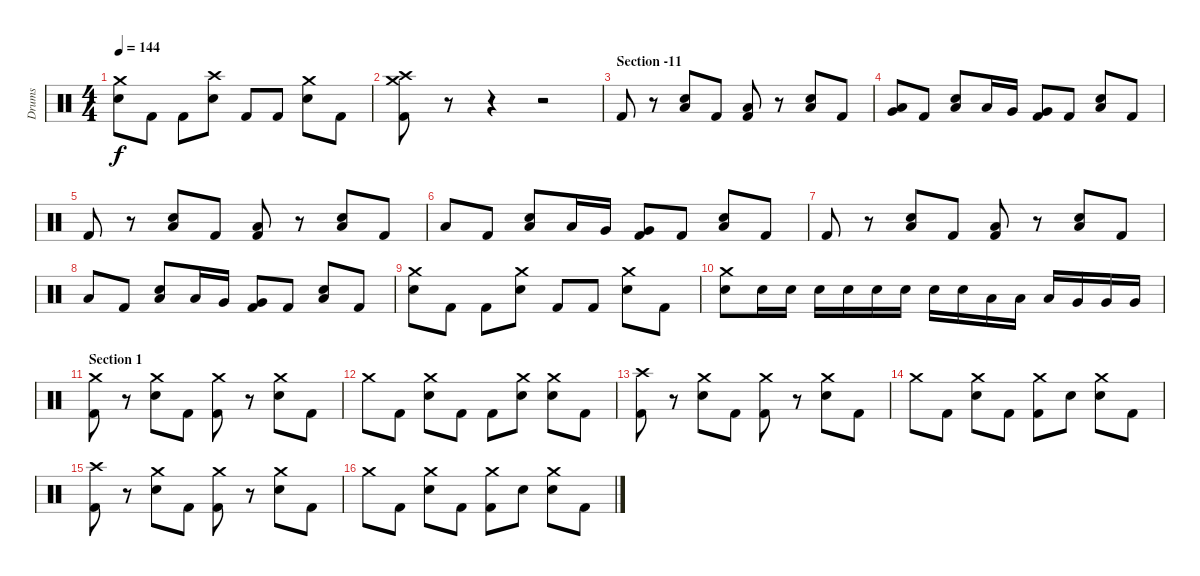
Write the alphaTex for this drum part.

\track ("Drums" "Drums") {instrument percussion}
\staff {score}
\articulation defaults
\ts (4 4)
\tempo 144
\clef neutral
\ks c
("Crash medium (hit)" "Snare (hit) 2").8{dy f} "Kick (hit) 2".8 "Kick (hit) 2".8 ("Crash high (hit)" "Snare (hit) 2").8 "Kick (hit) 2".8 "Kick (hit) 2".8 ("Crash medium (hit)" "Snare (hit) 2").8 "Kick (hit) 2".8 |
("Crash high (hit)" "Crash medium (hit)" "Kick (hit) 2").8 r.8 r.4 r.2 |
\section ("" "Section -11")
"Kick (hit) 2".8 r.8 ("Snare (hit) 2" "Low Tom (hit)").8{bd 60} "Kick (hit) 2".8 ("Low Floor Tom (hit)" "Kick (hit) 2").8 r.8 ("Snare (hit) 2" "Low Tom (hit)").8 "Kick (hit) 2".8 |
("Low Tom (hit)" "Very Low Tom (hit)").8 "Kick (hit) 2".8 ("Snare (hit) 2" "Low Tom (hit)").8 "Low Tom (hit)".16 "Very Low Tom (hit)".16 ("Very Low Tom (hit)" "Kick (hit) 2").8 "Kick (hit) 2".8 ("Snare (hit) 2" "Low Tom (hit)").8 "Kick (hit) 2".8 |
"Kick (hit) 2".8 r.8 ("Snare (hit) 2" "Low Tom (hit)").8{bd 60} "Kick (hit) 2".8 ("Low Tom (hit)" "Kick (hit) 2").8 r.8 ("Snare (hit) 2" "Low Tom (hit)").8 "Kick (hit) 2".8 |
"Low Tom (hit)".8 "Kick (hit) 2".8 ("Snare (hit) 2" "Low Tom (hit)").8 "Low Tom (hit)".16 "Very Low Tom (hit)".16 ("Very Low Tom (hit)" "Kick (hit) 2").8 "Kick (hit) 2".8 ("Snare (hit) 2" "Low Tom (hit)").8 "Kick (hit) 2".8 |
"Kick (hit) 2".8 r.8 ("Snare (hit) 2" "Low Tom (hit)").8{bd 60} "Kick (hit) 2".8 ("Low Tom (hit)" "Kick (hit) 2").8 r.8 ("Snare (hit) 2" "Low Tom (hit)").8 "Kick (hit) 2".8 |
"Low Tom (hit)".8 "Kick (hit) 2".8 ("Snare (hit) 2" "Low Tom (hit)").8 "Low Tom (hit)".16 "Very Low Tom (hit)".16 ("Very Low Tom (hit)" "Kick (hit) 2").8 "Kick (hit) 2".8 ("Snare (hit) 2" "Low Tom (hit)").8 "Kick (hit) 2".8 |
("Crash medium (hit)" "Snare (hit) 2").8 "Kick (hit) 2".8 "Kick (hit) 2".8 ("Crash medium (hit)" "Snare (hit) 2").8 "Kick (hit) 2".8 "Kick (hit) 2".8 ("Crash medium (hit)" "Snare (hit) 2").8 "Kick (hit) 2".8 |
("Crash medium (hit)" "Snare (hit) 2").8 "Snare (hit) 2".16 "Snare (hit) 2".16 "Snare (hit) 2".16 "Snare (hit) 2".16 "Snare (hit) 2".16 "Snare (hit) 2".16 "Snare (hit) 2".16 "Snare (hit) 2".16 "Low Tom (hit)".16 "Low Tom (hit)".16 "Low Tom (hit)".16 "Very Low Tom (hit)".16 "Very Low Tom (hit)".16 "Very Low Tom (hit)".16 |
\section ("" "Section 1")
("Crash medium (hit)" "Kick (hit) 2").8 r.8 ("Crash medium (hit)" "Snare (hit) 2").8 "Kick (hit) 2".8 ("Crash medium (hit)" "Kick (hit) 2").8 r.8 ("Crash medium (hit)" "Snare (hit) 2").8 "Kick (hit) 2".8 |
"Crash medium (hit)".8 "Kick (hit) 2".8 ("Crash medium (hit)" "Snare (hit) 2").8 "Kick (hit) 2".8 "Kick (hit) 2".8 ("Crash medium (hit)" "Snare (hit) 2").8 ("Crash medium (hit)" "Snare (hit) 2").8 "Kick (hit) 2".8 |
("Crash high (hit)" "Kick (hit) 2").8 r.8 ("Crash medium (hit)" "Snare (hit) 2").8 "Kick (hit) 2".8 ("Crash medium (hit)" "Kick (hit) 2").8 r.8 ("Crash medium (hit)" "Snare (hit) 2").8 "Kick (hit) 2".8 |
"Crash medium (hit)".8 "Kick (hit) 2".8 ("Crash medium (hit)" "Snare (hit) 2").8 "Kick (hit) 2".8 ("Crash medium (hit)" "Kick (hit) 2").8 "Snare (hit) 2".8 ("Crash medium (hit)" "Snare (hit) 2").8 "Kick (hit) 2".8 |
("Crash high (hit)" "Kick (hit) 2").8 r.8 ("Crash medium (hit)" "Snare (hit) 2").8 "Kick (hit) 2".8 ("Crash medium (hit)" "Kick (hit) 2").8 r.8 ("Crash medium (hit)" "Snare (hit) 2").8 "Kick (hit) 2".8 |
"Crash medium (hit)".8 "Kick (hit) 2".8 ("Crash medium (hit)" "Snare (hit) 2").8 "Kick (hit) 2".8 ("Crash medium (hit)" "Kick (hit) 2").8 "Snare (hit) 2".8 ("Crash medium (hit)" "Snare (hit) 2").8 "Kick (hit) 2".8
